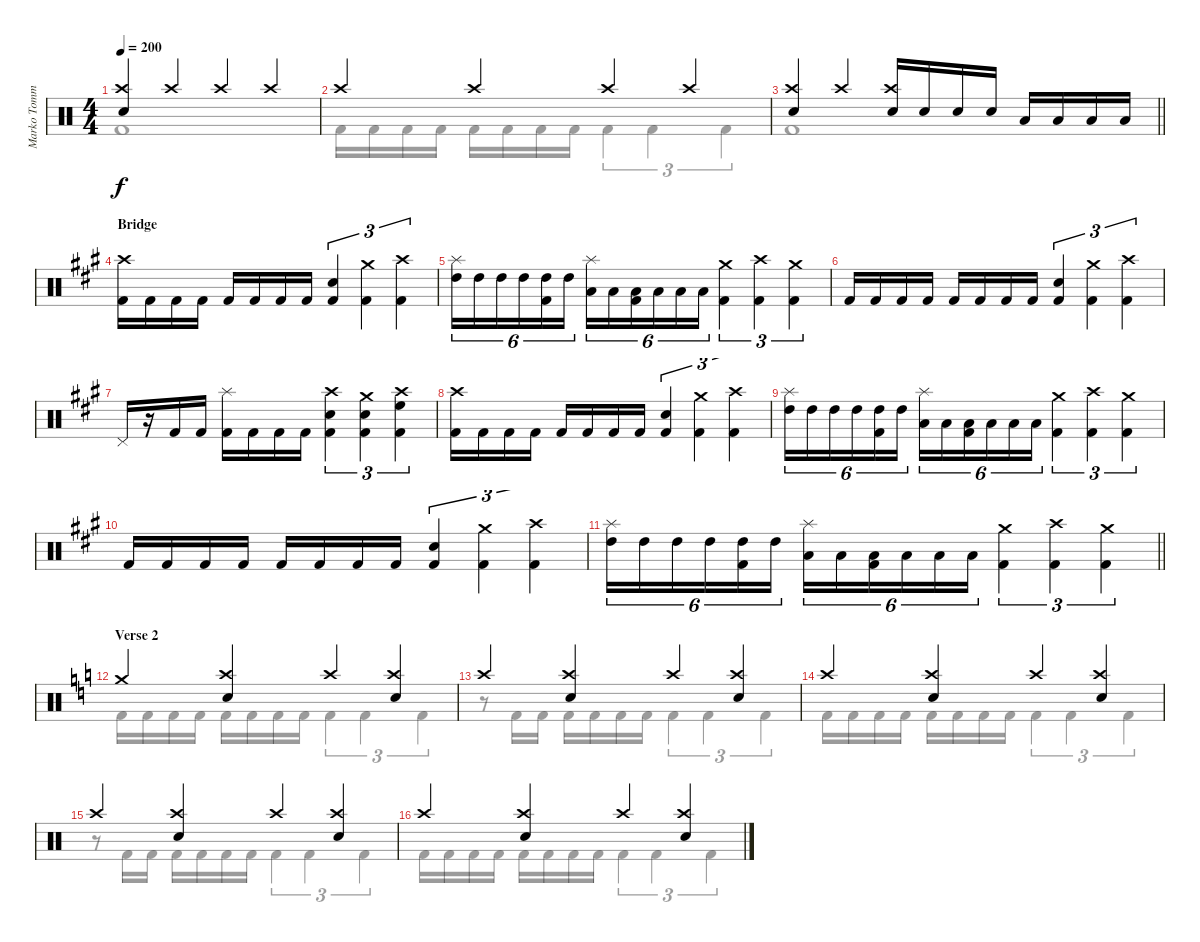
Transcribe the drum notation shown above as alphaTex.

\track ("Marko Tommila (drums)" "Marko Tomm") {instrument percussion}
\staff {score}
\articulation defaults
\voice
\ts (4 4)
\tempo 200
\clef neutral
\ks c
("Crash high (hit)" "Electric Snare (hit)").4{dy f} "Crash high (hit)".4 "Crash high (hit)".4 "Crash high (hit)".4 |
"Crash high (hit)".4 "Crash high (hit)".4 "Crash high (hit)".4 "Crash high (hit)".4 |
\barLineRight lightlight
("Crash high (hit)" "Electric Snare (hit)").4 "Crash high (hit)".4 ("Crash high (hit)" "Electric Snare (hit)").16 "Electric Snare (hit)".16 "Electric Snare (hit)".16 "Electric Snare (hit)".16 "Low Tom (hit)".16 "Low Tom (hit)".16 "Low Tom (hit)".16 "Low Tom (hit)".16 |
\section ("" "Bridge")
\ks f#minor
("Crash high (hit)" "Kick (hit) 2").16 "Kick (hit) 2".16 "Kick (hit) 2".16 "Kick (hit) 2".16 "Kick (hit) 2".16 "Kick (hit) 2".16 "Kick (hit) 2".16 "Kick (hit) 2".16 ("Electric Snare (hit)" "Kick (hit) 2").4{tu (3 2)} ("Crash medium (hit)" "Kick (hit) 2").4{tu (3 2)} ("Crash high (hit)" "Kick (hit) 2").4{tu (3 2)} |
("Splash (hit)" "High Tom (hit)").16{tu (6 4)} "High Tom (hit)".16{tu (6 4)} "High Tom (hit)".16{tu (6 4)} "High Tom (hit)".16{tu (6 4)} ("High Tom (hit)" "Kick (hit) 2").16{tu (6 4)} "High Tom (hit)".16{tu (6 4)} ("Splash (hit)" "Low Tom (hit)").16{tu (6 4)} "Low Tom (hit)".16{tu (6 4)} ("Low Tom (hit)" "Kick (hit) 2").16{tu (6 4)} "Low Tom (hit)".16{tu (6 4)} "Low Tom (hit)".16{tu (6 4)} "Low Tom (hit)".16{tu (6 4)} ("Crash medium (hit)" "Kick (hit) 2").4{tu (3 2)} ("Crash high (hit)" "Kick (hit) 2").4{tu (3 2)} ("Crash medium (hit)" "Kick (hit) 2").4{tu (3 2)} |
"Kick (hit) 2".16 "Kick (hit) 2".16 "Kick (hit) 2".16 "Kick (hit) 2".16 "Kick (hit) 2".16 "Kick (hit) 2".16 "Kick (hit) 2".16 "Kick (hit) 2".16 ("Electric Snare (hit)" "Kick (hit) 2").4{tu (3 2)} ("Crash medium (hit)" "Kick (hit) 2").4{tu (3 2)} ("Crash high (hit)" "Kick (hit) 2").4{tu (3 2)} |
"Pedal Hi-Hat (hit)".16 r.16 "Kick (hit) 2".16 "Kick (hit) 2".16 ("Splash (hit)" "Kick (hit) 2").16 "Kick (hit) 2".16 "Kick (hit) 2".16 "Kick (hit) 2".16 ("Crash high (hit)" "Electric Snare (hit)" "Kick (hit) 2").4{tu (3 2)} ("Crash medium (hit)" "Electric Snare (hit)" "Kick (hit) 2").4{tu (3 2)} ("Crash high (hit)" "High Floor Tom (hit)" "Kick (hit) 2").4{tu (3 2)} |
("Crash high (hit)" "Kick (hit) 2").16 "Kick (hit) 2".16 "Kick (hit) 2".16 "Kick (hit) 2".16 "Kick (hit) 2".16 "Kick (hit) 2".16 "Kick (hit) 2".16 "Kick (hit) 2".16 ("Electric Snare (hit)" "Kick (hit) 2").4{tu (3 2)} ("Crash medium (hit)" "Kick (hit) 2").4{tu (3 2)} ("Crash high (hit)" "Kick (hit) 2").4{tu (3 2)} |
("Splash (hit)" "High Tom (hit)").16{tu (6 4)} "High Tom (hit)".16{tu (6 4)} "High Tom (hit)".16{tu (6 4)} "High Tom (hit)".16{tu (6 4)} ("High Tom (hit)" "Kick (hit) 2").16{tu (6 4)} "High Tom (hit)".16{tu (6 4)} ("Splash (hit)" "Low Tom (hit)").16{tu (6 4)} "Low Tom (hit)".16{tu (6 4)} ("Low Tom (hit)" "Kick (hit) 2").16{tu (6 4)} "Low Tom (hit)".16{tu (6 4)} "Low Tom (hit)".16{tu (6 4)} "Low Tom (hit)".16{tu (6 4)} ("Crash medium (hit)" "Kick (hit) 2").4{tu (3 2)} ("Crash high (hit)" "Kick (hit) 2").4{tu (3 2)} ("Crash medium (hit)" "Kick (hit) 2").4{tu (3 2)} |
"Kick (hit) 2".16 "Kick (hit) 2".16 "Kick (hit) 2".16 "Kick (hit) 2".16 "Kick (hit) 2".16 "Kick (hit) 2".16 "Kick (hit) 2".16 "Kick (hit) 2".16 ("Electric Snare (hit)" "Kick (hit) 2").4{tu (3 2)} ("Crash medium (hit)" "Kick (hit) 2").4{tu (3 2)} ("Crash high (hit)" "Kick (hit) 2").4{tu (3 2)} |
\barLineRight lightlight
("Splash (hit)" "High Tom (hit)").16{tu (6 4)} "High Tom (hit)".16{tu (6 4)} "High Tom (hit)".16{tu (6 4)} "High Tom (hit)".16{tu (6 4)} ("High Tom (hit)" "Kick (hit) 2").16{tu (6 4)} "High Tom (hit)".16{tu (6 4)} ("Splash (hit)" "Low Tom (hit)").16{tu (6 4)} "Low Tom (hit)".16{tu (6 4)} ("Low Tom (hit)" "Kick (hit) 2").16{tu (6 4)} "Low Tom (hit)".16{tu (6 4)} "Low Tom (hit)".16{tu (6 4)} "Low Tom (hit)".16{tu (6 4)} ("Crash medium (hit)" "Kick (hit) 2").4{tu (3 2)} ("Crash high (hit)" "Kick (hit) 2").4{tu (3 2)} ("Crash medium (hit)" "Kick (hit) 2").4{tu (3 2)} |
\section ("" "Verse 2")
\ks c "Crash medium (hit)".4
("Crash high (hit)" "Electric Snare (hit)").4 "Crash high (hit)".4 ("Crash high (hit)" "Electric Snare (hit)").4 |
"Crash high (hit)".4 ("Crash high (hit)" "Electric Snare (hit)").4 "Crash high (hit)".4 ("Crash high (hit)" "Electric Snare (hit)").4 |
"Crash high (hit)".4 ("Crash high (hit)" "Electric Snare (hit)").4 "Crash high (hit)".4 ("Crash high (hit)" "Electric Snare (hit)").4 |
"Crash high (hit)".4 ("Crash high (hit)" "Electric Snare (hit)").4 "Crash high (hit)".4 ("Crash high (hit)" "Electric Snare (hit)").4 |
"Crash high (hit)".4 ("Crash high (hit)" "Electric Snare (hit)").4 "Crash high (hit)".4 ("Crash high (hit)" "Electric Snare (hit)").4
\voice
\clef neutral
\ottava regular
\simile none
\ks c "Kick (hit) 2".1{dy f}
|
"Kick (hit) 2".16 "Kick (hit) 2".16 "Kick (hit) 2".16 "Kick (hit) 2".16 "Kick (hit) 2".16 "Kick (hit) 2".16 "Kick (hit) 2".16 "Kick (hit) 2".16 "Kick (hit) 2".4{tu (3 2)} "Kick (hit) 2".4{tu (3 2)} "Kick (hit) 2".4{tu (3 2)} |
\barLineRight lightlight "Kick (hit) 2".1
|
\ks f#minor
|
|
|
|
|
|
|
\barLineRight lightlight
|
\ks c "Kick (hit) 2".16 "Kick (hit) 2".16 "Kick (hit) 2".16 "Kick (hit) 2".16 "Kick (hit) 2".16 "Kick (hit) 2".16 "Kick (hit) 2".16 "Kick (hit) 2".16 "Kick (hit) 2".4{tu (3 2)} "Kick (hit) 2".4{tu (3 2)} "Kick (hit) 2".4{tu (3 2)}
|
r.8 "Kick (hit) 2".16 "Kick (hit) 2".16 "Kick (hit) 2".16 "Kick (hit) 2".16 "Kick (hit) 2".16 "Kick (hit) 2".16 "Kick (hit) 2".4{tu (3 2)} "Kick (hit) 2".4{tu (3 2)} "Kick (hit) 2".4{tu (3 2)} |
"Kick (hit) 2".16 "Kick (hit) 2".16 "Kick (hit) 2".16 "Kick (hit) 2".16 "Kick (hit) 2".16 "Kick (hit) 2".16 "Kick (hit) 2".16 "Kick (hit) 2".16 "Kick (hit) 2".4{tu (3 2)} "Kick (hit) 2".4{tu (3 2)} "Kick (hit) 2".4{tu (3 2)} |
r.8 "Kick (hit) 2".16 "Kick (hit) 2".16 "Kick (hit) 2".16 "Kick (hit) 2".16 "Kick (hit) 2".16 "Kick (hit) 2".16 "Kick (hit) 2".4{tu (3 2)} "Kick (hit) 2".4{tu (3 2)} "Kick (hit) 2".4{tu (3 2)} |
"Kick (hit) 2".16 "Kick (hit) 2".16 "Kick (hit) 2".16 "Kick (hit) 2".16 "Kick (hit) 2".16 "Kick (hit) 2".16 "Kick (hit) 2".16 "Kick (hit) 2".16 "Kick (hit) 2".4{tu (3 2)} "Kick (hit) 2".4{tu (3 2)} "Kick (hit) 2".4{tu (3 2)}
